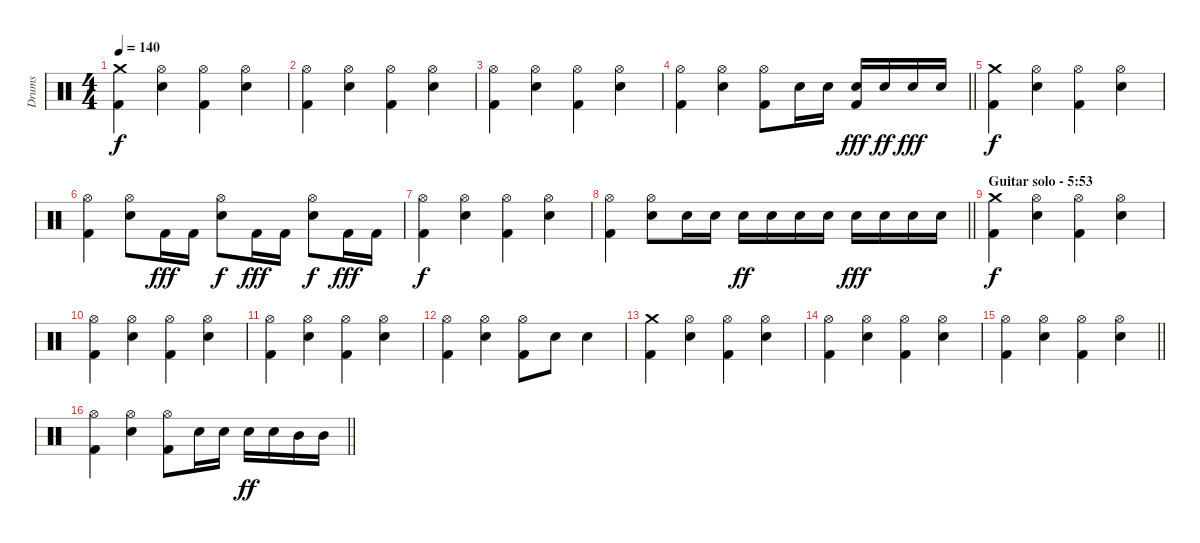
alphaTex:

\track ("Drums" "Drums") {instrument percussion}
\staff {score}
\articulation defaults
\ts (4 4)
\tempo 140
\clef neutral
\ks c
("Crash medium (hit)" "Kick (hit) 2").4{dy f} ("Hi-Hat (open)" "Electric Snare (hit)").4 ("Hi-Hat (open)" "Kick (hit) 2").4 ("Hi-Hat (open)" "Electric Snare (hit)").4 |
("Hi-Hat (open)" "Kick (hit) 2").4 ("Hi-Hat (open)" "Electric Snare (hit)").4 ("Hi-Hat (open)" "Kick (hit) 2").4 ("Hi-Hat (open)" "Electric Snare (hit)").4 |
("Hi-Hat (open)" "Kick (hit) 2").4 ("Hi-Hat (open)" "Electric Snare (hit)").4 ("Hi-Hat (open)" "Kick (hit) 2").4 ("Hi-Hat (open)" "Electric Snare (hit)").4 |
\barLineRight lightlight
("Hi-Hat (open)" "Kick (hit) 2").4 ("Hi-Hat (open)" "Electric Snare (hit)").4 ("Hi-Hat (open)" "Kick (hit) 2").8 "Electric Snare (hit)".16 "Electric Snare (hit)".16 ("Electric Snare (hit)" "Kick (hit) 2").16{dy fff} "Electric Snare (hit)".16{dy ff} "Electric Snare (hit)".16{dy fff} "Electric Snare (hit)".16 |
("Crash medium (hit)" "Kick (hit) 2").4{dy f} ("Hi-Hat (open)" "Electric Snare (hit)").4 ("Hi-Hat (open)" "Kick (hit) 2").4 ("Hi-Hat (open)" "Electric Snare (hit)").4 |
("Hi-Hat (open)" "Kick (hit) 2").4 ("Hi-Hat (open)" "Electric Snare (hit)").8 "Kick (hit) 2".16{dy fff} "Kick (hit) 2".16 ("Hi-Hat (open)" "Electric Snare (hit)").8{dy f} "Kick (hit) 2".16{dy fff} "Kick (hit) 2".16 ("Hi-Hat (open)" "Electric Snare (hit)").8{dy f} "Kick (hit) 2".16{dy fff} "Kick (hit) 2".16 |
("Hi-Hat (open)" "Kick (hit) 2").4{dy f} ("Hi-Hat (open)" "Electric Snare (hit)").4 ("Hi-Hat (open)" "Kick (hit) 2").4 ("Hi-Hat (open)" "Electric Snare (hit)").4 |
\barLineRight lightlight
("Hi-Hat (open)" "Kick (hit) 2").4 ("Hi-Hat (open)" "Electric Snare (hit)").8 "Electric Snare (hit)".16 "Electric Snare (hit)".16 "Electric Snare (hit)".16{dy ff} "Electric Snare (hit)".16 "Electric Snare (hit)".16 "Electric Snare (hit)".16 "Electric Snare (hit)".16{dy fff} "Electric Snare (hit)".16 "Electric Snare (hit)".16 "Electric Snare (hit)".16 |
\section ("" "Guitar solo - 5:53")
("Crash medium (hit)" "Kick (hit) 2").4{dy f} ("Hi-Hat (open)" "Electric Snare (hit)").4 ("Hi-Hat (open)" "Kick (hit) 2").4 ("Hi-Hat (open)" "Electric Snare (hit)").4 |
("Hi-Hat (open)" "Kick (hit) 2").4 ("Hi-Hat (open)" "Electric Snare (hit)").4 ("Hi-Hat (open)" "Kick (hit) 2").4 ("Hi-Hat (open)" "Electric Snare (hit)").4 |
("Hi-Hat (open)" "Kick (hit) 2").4 ("Hi-Hat (open)" "Electric Snare (hit)").4 ("Hi-Hat (open)" "Kick (hit) 2").4 ("Hi-Hat (open)" "Electric Snare (hit)").4 |
("Hi-Hat (open)" "Kick (hit) 2").4 ("Hi-Hat (open)" "Electric Snare (hit)").4 ("Hi-Hat (open)" "Kick (hit) 2").8 "Electric Snare (hit)".8 "Electric Snare (hit)".4 |
("Crash medium (hit)" "Kick (hit) 2").4 ("Hi-Hat (open)" "Electric Snare (hit)").4 ("Hi-Hat (open)" "Kick (hit) 2").4 ("Hi-Hat (open)" "Electric Snare (hit)").4 |
("Hi-Hat (open)" "Kick (hit) 2").4 ("Hi-Hat (open)" "Electric Snare (hit)").4 ("Hi-Hat (open)" "Kick (hit) 2").4 ("Hi-Hat (open)" "Electric Snare (hit)").4 |
\barLineRight lightlight
("Hi-Hat (open)" "Kick (hit) 2").4 ("Hi-Hat (open)" "Electric Snare (hit)").4 ("Hi-Hat (open)" "Kick (hit) 2").4 ("Hi-Hat (open)" "Electric Snare (hit)").4 |
\section ("" "")
\barLineRight lightlight
("Hi-Hat (open)" "Kick (hit) 2").4 ("Hi-Hat (open)" "Electric Snare (hit)").4 ("Hi-Hat (open)" "Kick (hit) 2").8 "Electric Snare (hit)".16 "Electric Snare (hit)".16 "Electric Snare (hit)".16{dy ff} "Electric Snare (hit)".16 "Mid Tom (hit)".16 "Mid Tom (hit)".16
